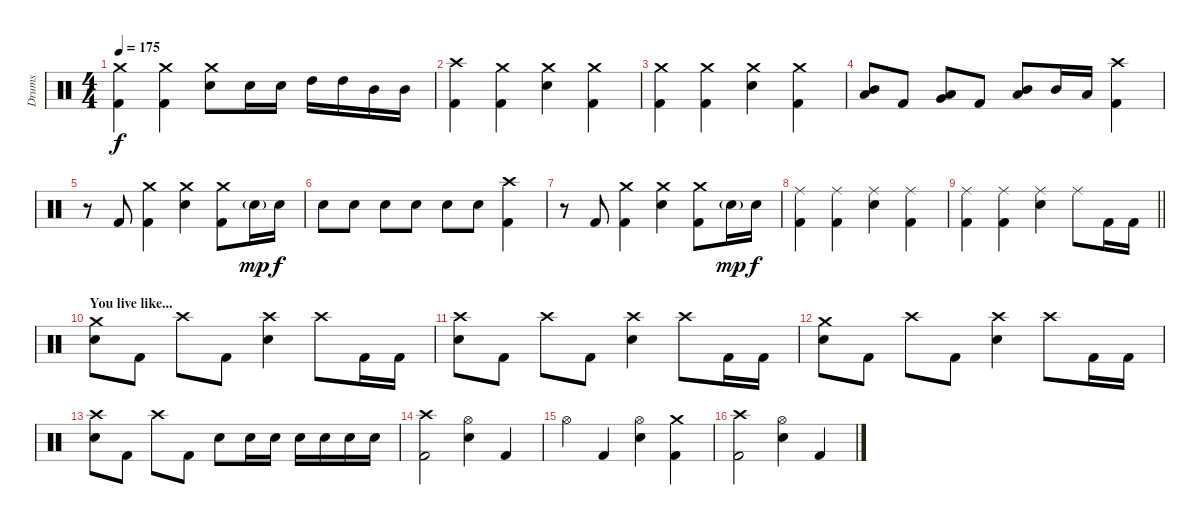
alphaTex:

\track ("Drums" "Drums") {instrument percussion}
\staff {score}
\articulation defaults
\ts (4 4)
\tempo 175
\clef neutral
\ks c
("Crash medium (hit)" "Kick (hit) 2").4{dy f} ("Crash medium (hit)" "Kick (hit) 2").4 ("Crash medium (hit)" "Electric Snare (hit)").8 "Electric Snare (hit)".16 "Electric Snare (hit)".16 "High Tom (hit)".16 "High Tom (hit)".16 "Mid Tom (hit)".16 "Mid Tom (hit)".16 |
("Crash high (hit)" "Kick (hit) 2").4 ("Crash medium (hit)" "Kick (hit) 2").4 ("Crash medium (hit)" "Electric Snare (hit)").4 ("Crash medium (hit)" "Kick (hit) 2").4 |
("Crash medium (hit)" "Kick (hit) 2").4 ("Crash medium (hit)" "Kick (hit) 2").4 ("Crash medium (hit)" "Electric Snare (hit)").4 ("Crash medium (hit)" "Kick (hit) 2").4 |
("Low Tom (hit)" "Mid Tom (hit)").8 "Kick (hit) 2".8 ("Very Low Tom (hit)" "Low Tom (hit)").8 "Kick (hit) 2".8 ("Low Tom (hit)" "Mid Tom (hit)").8 "Mid Tom (hit)".16 "Low Tom (hit)".16 ("Crash high (hit)" "Kick (hit) 2").4 |
r.8 "Kick (hit) 2".8 ("Crash medium (hit)" "Kick (hit) 2").4 ("Crash medium (hit)" "Electric Snare (hit)").4 ("Crash medium (hit)" "Kick (hit) 2").8 "Electric Snare (hit)"{g}.16{dy mp} "Electric Snare (hit)".16{dy f} |
"Electric Snare (hit)".8 "Electric Snare (hit)".8 "Electric Snare (hit)".8 "Electric Snare (hit)".8 "Electric Snare (hit)".8 "Electric Snare (hit)".8 ("Crash high (hit)" "Kick (hit) 2").4 |
r.8 "Kick (hit) 2".8 ("Crash medium (hit)" "Kick (hit) 2").4 ("Crash medium (hit)" "Electric Snare (hit)").4 ("Crash medium (hit)" "Kick (hit) 2").8 "Electric Snare (hit)"{g}.16{dy mp} "Electric Snare (hit)".16{dy f} |
("Ride (middle)" "Kick (hit) 2").4 ("Ride (middle)" "Kick (hit) 2").4 ("Ride (middle)" "Electric Snare (hit)").4 ("Ride (middle)" "Kick (hit) 2").4 |
\barLineRight lightlight
("Ride (middle)" "Kick (hit) 2").4 ("Ride (middle)" "Kick (hit) 2").4 ("Ride (middle)" "Electric Snare (hit)").4 "Ride (middle)".8 "Kick (hit) 2".16 "Kick (hit) 2".16 |
\section ("" "You live like...")
("Crash medium (hit)" "Electric Snare (hit)").8 "Kick (hit) 2".8 "Crash high (hit)".8 "Kick (hit) 2".8 ("Crash high (hit)" "Electric Snare (hit)").4 "Crash high (hit)".8 "Kick (hit) 2".16 "Kick (hit) 2".16 |
("Crash high (hit)" "Electric Snare (hit)").8 "Kick (hit) 2".8 "Crash high (hit)".8 "Kick (hit) 2".8 ("Crash high (hit)" "Electric Snare (hit)").4 "Crash high (hit)".8 "Kick (hit) 2".16 "Kick (hit) 2".16 |
("Crash medium (hit)" "Electric Snare (hit)").8 "Kick (hit) 2".8 "Crash high (hit)".8 "Kick (hit) 2".8 ("Crash high (hit)" "Electric Snare (hit)").4 "Crash high (hit)".8 "Kick (hit) 2".16 "Kick (hit) 2".16 |
("Crash high (hit)" "Electric Snare (hit)").8 "Kick (hit) 2".8 "Crash high (hit)".8 "Kick (hit) 2".8 "Electric Snare (hit)".8 "Electric Snare (hit)".16 "Electric Snare (hit)".16 "Electric Snare (hit)".16 "Electric Snare (hit)".16 "Electric Snare (hit)".16 "Electric Snare (hit)".16 |
("Crash high (hit)" "Kick (hit) 2").2 ("Hi-Hat (open)" "Electric Snare (hit)").4 "Kick (hit) 2".4 |
"Hi-Hat (open)".4 "Kick (hit) 2".4 ("Hi-Hat (open)" "Electric Snare (hit)").4 ("Crash medium (hit)" "Kick (hit) 2").4 |
("Crash high (hit)" "Kick (hit) 2").2 ("Hi-Hat (open)" "Electric Snare (hit)").4 "Kick (hit) 2".4
